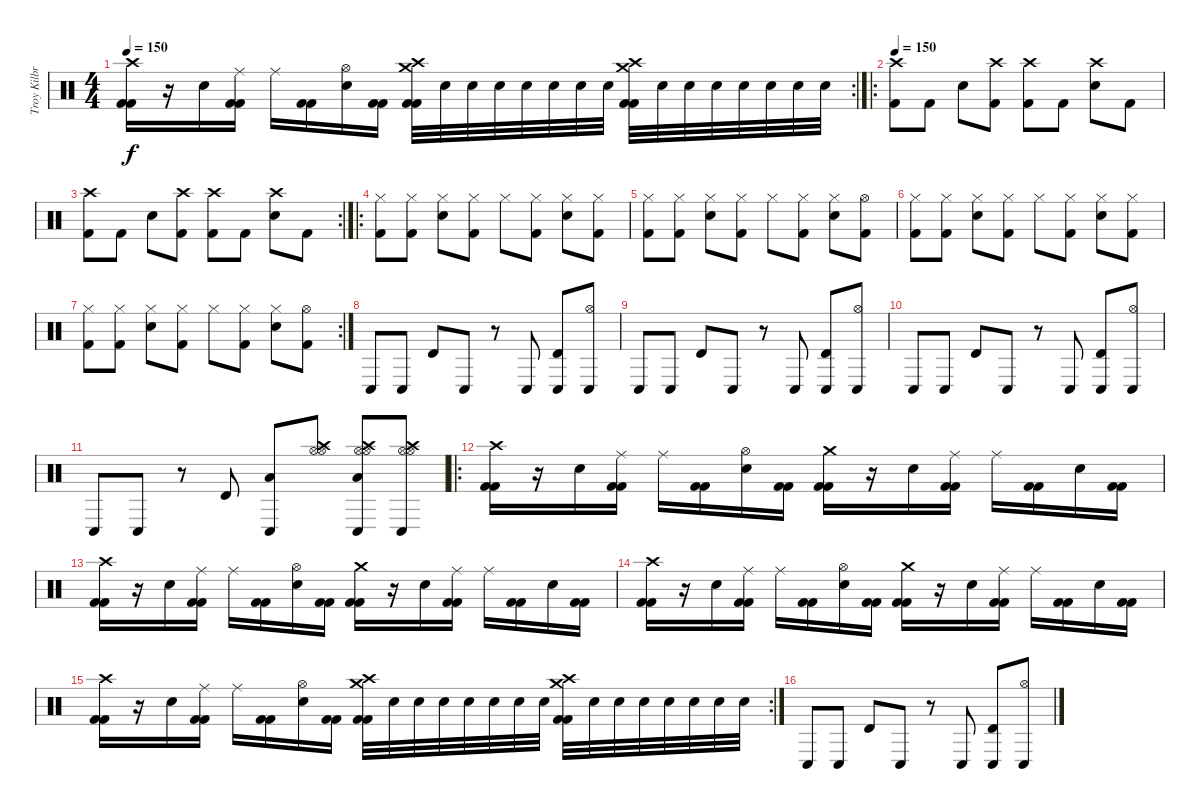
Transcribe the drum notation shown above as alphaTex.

\track ("Troy Kilbride" "Troy Kilbr") {instrument percussion}
\staff {score}
\articulation defaults
\rc 2
\ts (4 4)
\tempo 150
\clef neutral
\ks c
("Crash high (hit)" "Kick (hit) 2" "Kick (hit) 2").16{dy f} r.16 "Electric Snare (hit)".16 ("Ride (middle)" "Kick (hit) 2" "Kick (hit) 2").16 "Ride (middle)".16 ("Kick (hit) 2" "Kick (hit) 2").16 ("Hi-Hat (open)" "Electric Snare (hit)").16 ("Kick (hit) 2" "Kick (hit) 2").16 ("Crash high (hit)" "Crash medium (hit)" "Kick (hit) 2" "Kick (hit) 2").32 "Electric Snare (hit)".32 "Electric Snare (hit)".32 "Electric Snare (hit)".32 "Electric Snare (hit)".32 "Electric Snare (hit)".32 "Electric Snare (hit)".32 "Electric Snare (hit)".32 ("Crash high (hit)" "Crash medium (hit)" "Kick (hit) 2" "Kick (hit) 2").32 "Electric Snare (hit)".32 "Electric Snare (hit)".32 "Electric Snare (hit)".32 "Electric Snare (hit)".32 "Electric Snare (hit)".32 "Electric Snare (hit)".32 "Electric Snare (hit)".32 |
\ro
\tempo 150
("Kick (hit) 2" "Crash high (hit)").8 "Kick (hit) 2".8 "Snare (hit) 2".8 ("Kick (hit) 2" "Crash high (hit)").8 ("Kick (hit) 2" "Crash high (hit)").8 "Kick (hit) 2".8 ("Snare (hit) 2" "Crash high (hit)").8 "Kick (hit) 2".8 |
\rc 2
("Kick (hit) 2" "Crash high (hit)").8 "Kick (hit) 2".8 "Snare (hit) 2".8 ("Kick (hit) 2" "Crash high (hit)").8 ("Kick (hit) 2" "Crash high (hit)").8 "Kick (hit) 2".8 ("Snare (hit) 2" "Crash high (hit)").8 "Kick (hit) 2".8 |
\ro
("Kick (hit) 2" "Hi-Hat (closed)").8 ("Kick (hit) 2" "Hi-Hat (closed)").8 ("Snare (hit) 2" "Hi-Hat (closed)").8 ("Kick (hit) 2" "Hi-Hat (closed)").8 "Hi-Hat (closed)".8 ("Kick (hit) 2" "Hi-Hat (closed)").8 ("Snare (hit) 2" "Hi-Hat (closed)").8 ("Kick (hit) 2" "Hi-Hat (closed)").8 |
("Kick (hit) 2" "Hi-Hat (closed)").8 ("Kick (hit) 2" "Hi-Hat (closed)").8 ("Snare (hit) 2" "Hi-Hat (closed)").8 ("Kick (hit) 2" "Hi-Hat (closed)").8 "Hi-Hat (closed)".8 ("Kick (hit) 2" "Hi-Hat (closed)").8 ("Snare (hit) 2" "Hi-Hat (closed)").8 ("Kick (hit) 2" "Hi-Hat (open)").8 |
("Kick (hit) 2" "Hi-Hat (closed)").8 ("Kick (hit) 2" "Hi-Hat (closed)").8 ("Snare (hit) 2" "Hi-Hat (closed)").8 ("Kick (hit) 2" "Hi-Hat (closed)").8 "Hi-Hat (closed)".8 ("Kick (hit) 2" "Hi-Hat (closed)").8 ("Snare (hit) 2" "Hi-Hat (closed)").8 ("Kick (hit) 2" "Hi-Hat (closed)").8 |
\rc 2
("Kick (hit) 2" "Hi-Hat (closed)").8 ("Kick (hit) 2" "Hi-Hat (closed)").8 ("Snare (hit) 2" "Hi-Hat (closed)").8 ("Kick (hit) 2" "Hi-Hat (closed)").8 "Hi-Hat (closed)".8 ("Kick (hit) 2" "Hi-Hat (closed)").8 ("Snare (hit) 2" "Hi-Hat (closed)").8 ("Kick (hit) 2" "Hi-Hat (open)").8 |
"Conga low (hit)".8 "Conga low (hit)".8 "Timbale high (hit)".8 "Conga low (hit)".8 r.8 "Conga low (hit)".8 ("Conga low (hit)" "Timbale high (hit)").8 ("Conga low (hit)" "Hi-Hat (open)").8 |
"Conga low (hit)".8 "Conga low (hit)".8 "Timbale high (hit)".8 "Conga low (hit)".8 r.8 "Conga low (hit)".8 ("Conga low (hit)" "Timbale high (hit)").8 ("Conga low (hit)" "Hi-Hat (open)").8 |
"Conga low (hit)".8 "Conga low (hit)".8 "Timbale high (hit)".8 "Conga low (hit)".8 r.8 "Conga low (hit)".8 ("Conga low (hit)" "Timbale high (hit)").8 ("Conga low (hit)" "Hi-Hat (open)").8 |
"Conga low (hit)".8 "Conga low (hit)".8 r.8 "Timbale high (hit)".8 ("Conga low (hit)" "Low Tom (hit)").8 ("Hi-Hat (open)" "Crash high (hit)" "Hi-Hat (open)").8 ("Conga low (hit)" "Low Tom (hit)" "Crash high (hit)" "Hi-Hat (open)" "Hi-Hat (open)").8 ("Conga low (hit)" "Crash high (hit)" "Hi-Hat (open)" "Hi-Hat (open)").8 |
\ro
("Crash high (hit)" "Kick (hit) 2" "Kick (hit) 2").16 r.16 "Electric Snare (hit)".16 ("Ride (middle)" "Kick (hit) 2" "Kick (hit) 2").16 "Ride (middle)".16 ("Kick (hit) 2" "Kick (hit) 2").16 ("Hi-Hat (open)" "Electric Snare (hit)").16 ("Kick (hit) 2" "Kick (hit) 2").16 ("Crash medium (hit)" "Kick (hit) 2" "Kick (hit) 2").16 r.16 "Electric Snare (hit)".16 ("Ride (middle)" "Kick (hit) 2" "Kick (hit) 2").16 "Ride (middle)".16 ("Kick (hit) 2" "Kick (hit) 2").16 "Electric Snare (hit)".16 ("Kick (hit) 2" "Kick (hit) 2").16 |
("Crash high (hit)" "Kick (hit) 2" "Kick (hit) 2").16 r.16 "Electric Snare (hit)".16 ("Ride (middle)" "Kick (hit) 2" "Kick (hit) 2").16 "Ride (middle)".16 ("Kick (hit) 2" "Kick (hit) 2").16 ("Hi-Hat (open)" "Electric Snare (hit)").16 ("Kick (hit) 2" "Kick (hit) 2").16 ("Crash medium (hit)" "Kick (hit) 2" "Kick (hit) 2").16 r.16 "Electric Snare (hit)".16 ("Ride (middle)" "Kick (hit) 2" "Kick (hit) 2").16 "Ride (middle)".16 ("Kick (hit) 2" "Kick (hit) 2").16 "Electric Snare (hit)".16 ("Kick (hit) 2" "Kick (hit) 2").16 |
("Crash high (hit)" "Kick (hit) 2" "Kick (hit) 2").16 r.16 "Electric Snare (hit)".16 ("Ride (middle)" "Kick (hit) 2" "Kick (hit) 2").16 "Ride (middle)".16 ("Kick (hit) 2" "Kick (hit) 2").16 ("Hi-Hat (open)" "Electric Snare (hit)").16 ("Kick (hit) 2" "Kick (hit) 2").16 ("Crash medium (hit)" "Kick (hit) 2" "Kick (hit) 2").16 r.16 "Electric Snare (hit)".16 ("Ride (middle)" "Kick (hit) 2" "Kick (hit) 2").16 "Ride (middle)".16 ("Kick (hit) 2" "Kick (hit) 2").16 "Electric Snare (hit)".16 ("Kick (hit) 2" "Kick (hit) 2").16 |
\rc 2
("Crash high (hit)" "Kick (hit) 2" "Kick (hit) 2").16 r.16 "Electric Snare (hit)".16 ("Ride (middle)" "Kick (hit) 2" "Kick (hit) 2").16 "Ride (middle)".16 ("Kick (hit) 2" "Kick (hit) 2").16 ("Hi-Hat (open)" "Electric Snare (hit)").16 ("Kick (hit) 2" "Kick (hit) 2").16 ("Crash high (hit)" "Crash medium (hit)" "Kick (hit) 2" "Kick (hit) 2").32 "Electric Snare (hit)".32 "Electric Snare (hit)".32 "Electric Snare (hit)".32 "Electric Snare (hit)".32 "Electric Snare (hit)".32 "Electric Snare (hit)".32 "Electric Snare (hit)".32 ("Crash high (hit)" "Crash medium (hit)" "Kick (hit) 2" "Kick (hit) 2").32 "Electric Snare (hit)".32 "Electric Snare (hit)".32 "Electric Snare (hit)".32 "Electric Snare (hit)".32 "Electric Snare (hit)".32 "Electric Snare (hit)".32 "Electric Snare (hit)".32 |
"Conga low (hit)".8 "Conga low (hit)".8 "Timbale high (hit)".8 "Conga low (hit)".8 r.8 "Conga low (hit)".8 ("Conga low (hit)" "Timbale high (hit)").8 ("Conga low (hit)" "Hi-Hat (open)").8
